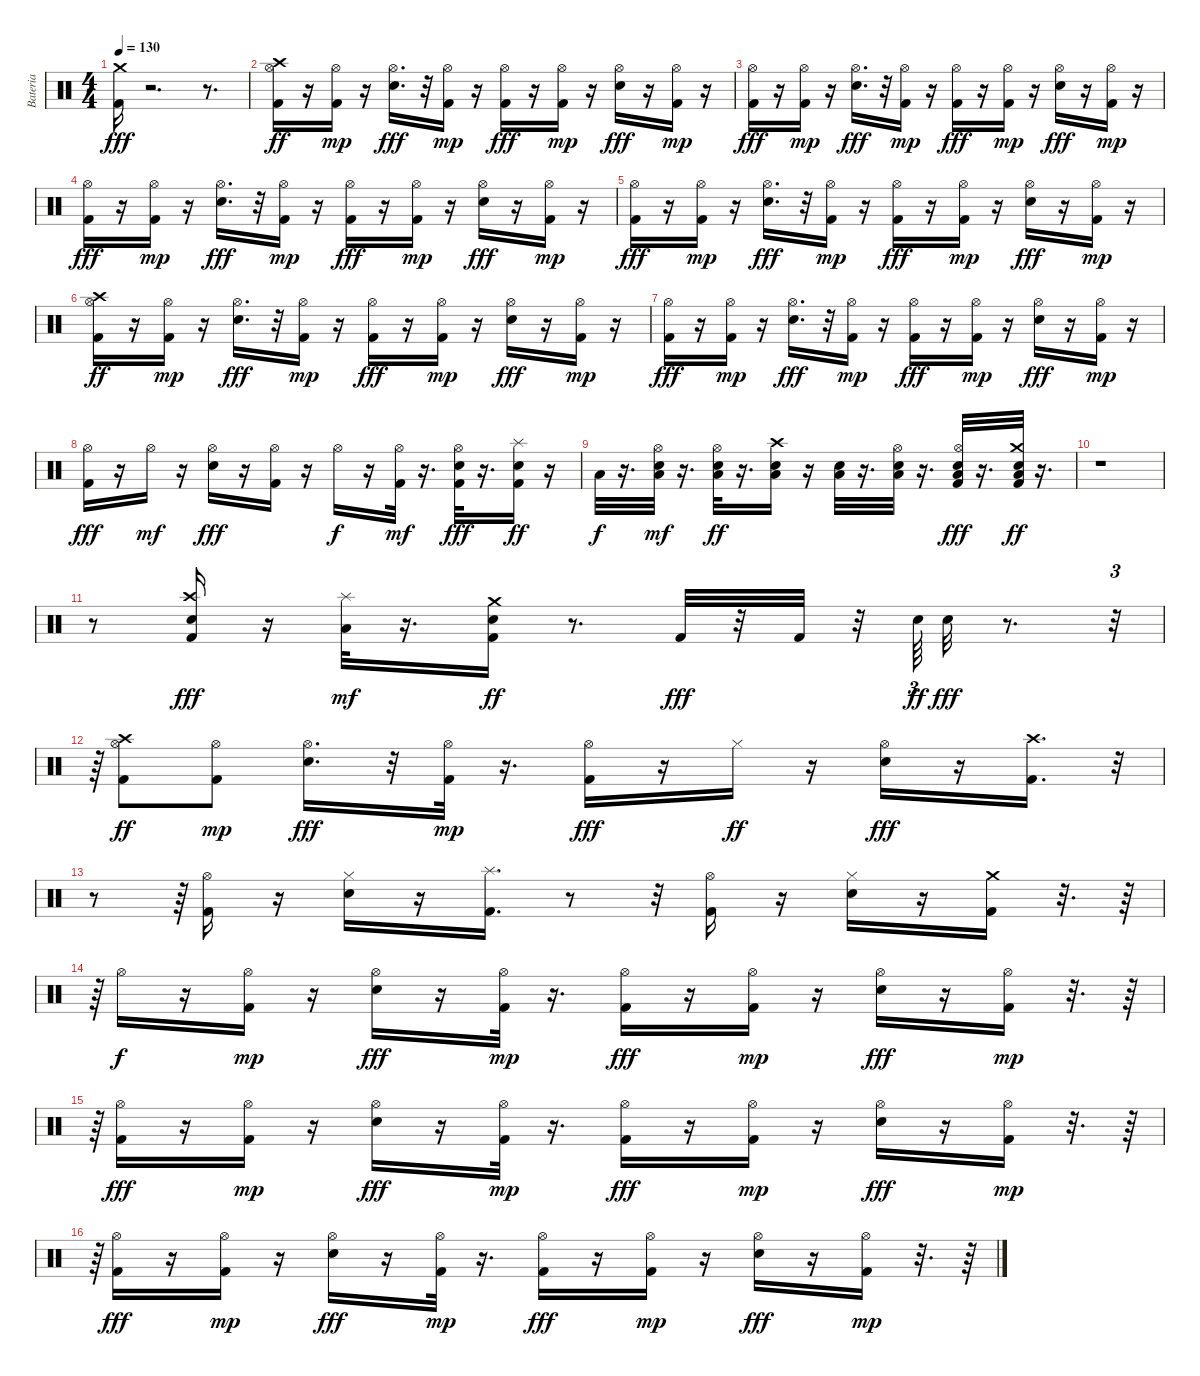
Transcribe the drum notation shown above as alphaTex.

\track ("Bateria" "Bateria") {instrument percussion}
\staff {score}
\articulation defaults
\ts (4 4)
\tempo 130
\clef neutral
\ks c
("Kick (hit) 2" "Crash medium (hit)").16{dy fff} r.2{d} r.8{d} |
("Kick (hit) 2" "Hi-Hat (open)" "Crash high (hit)").16{dy ff} r.16 ("Kick (hit) 2" "Hi-Hat (open)").16{dy mp} r.16 ("Electric Snare (hit)" "Hi-Hat (open)").16{d dy fff} r.32 ("Kick (hit) 2" "Hi-Hat (open)").16{dy mp} r.16 ("Kick (hit) 2" "Hi-Hat (open)").16{dy fff} r.16 ("Kick (hit) 2" "Hi-Hat (open)").16{dy mp} r.16 ("Electric Snare (hit)" "Hi-Hat (open)").16{dy fff} r.16 ("Kick (hit) 2" "Hi-Hat (open)").16{dy mp} r.16 |
("Kick (hit) 2" "Hi-Hat (open)").16{dy fff} r.16 ("Kick (hit) 2" "Hi-Hat (open)").16{dy mp} r.16 ("Electric Snare (hit)" "Hi-Hat (open)").16{d dy fff} r.32 ("Kick (hit) 2" "Hi-Hat (open)").16{dy mp} r.16 ("Kick (hit) 2" "Hi-Hat (open)").16{dy fff} r.16 ("Kick (hit) 2" "Hi-Hat (open)").16{dy mp} r.16 ("Electric Snare (hit)" "Hi-Hat (open)").16{dy fff} r.16 ("Kick (hit) 2" "Hi-Hat (open)").16{dy mp} r.16 |
("Kick (hit) 2" "Hi-Hat (open)").16{dy fff} r.16 ("Kick (hit) 2" "Hi-Hat (open)").16{dy mp} r.16 ("Electric Snare (hit)" "Hi-Hat (open)").16{d dy fff} r.32 ("Kick (hit) 2" "Hi-Hat (open)").16{dy mp} r.16 ("Kick (hit) 2" "Hi-Hat (open)").16{dy fff} r.16 ("Kick (hit) 2" "Hi-Hat (open)").16{dy mp} r.16 ("Electric Snare (hit)" "Hi-Hat (open)").16{dy fff} r.16 ("Kick (hit) 2" "Hi-Hat (open)").16{dy mp} r.16 |
("Kick (hit) 2" "Hi-Hat (open)").16{dy fff} r.16 ("Kick (hit) 2" "Hi-Hat (open)").16{dy mp} r.16 ("Electric Snare (hit)" "Hi-Hat (open)").16{d dy fff} r.32 ("Kick (hit) 2" "Hi-Hat (open)").16{dy mp} r.16 ("Kick (hit) 2" "Hi-Hat (open)").16{dy fff} r.16 ("Kick (hit) 2" "Hi-Hat (open)").16{dy mp} r.16 ("Electric Snare (hit)" "Hi-Hat (open)").16{dy fff} r.16 ("Kick (hit) 2" "Hi-Hat (open)").16{dy mp} r.16 |
("Kick (hit) 2" "Hi-Hat (open)" "Crash high (hit)").16{dy ff} r.16 ("Kick (hit) 2" "Hi-Hat (open)").16{dy mp} r.16 ("Electric Snare (hit)" "Hi-Hat (open)").16{d dy fff} r.32 ("Kick (hit) 2" "Hi-Hat (open)").16{dy mp} r.16 ("Kick (hit) 2" "Hi-Hat (open)").16{dy fff} r.16 ("Kick (hit) 2" "Hi-Hat (open)").16{dy mp} r.16 ("Electric Snare (hit)" "Hi-Hat (open)").16{dy fff} r.16 ("Kick (hit) 2" "Hi-Hat (open)").16{dy mp} r.16 |
("Kick (hit) 2" "Hi-Hat (open)").16{dy fff} r.16 ("Kick (hit) 2" "Hi-Hat (open)").16{dy mp} r.16 ("Electric Snare (hit)" "Hi-Hat (open)").16{d dy fff} r.32 ("Kick (hit) 2" "Hi-Hat (open)").16{dy mp} r.16 ("Kick (hit) 2" "Hi-Hat (open)").16{dy fff} r.16 ("Kick (hit) 2" "Hi-Hat (open)").16{dy mp} r.16 ("Electric Snare (hit)" "Hi-Hat (open)").16{dy fff} r.16 ("Kick (hit) 2" "Hi-Hat (open)").16{dy mp} r.16 |
("Kick (hit) 2" "Hi-Hat (open)").16{dy fff} r.16 "Hi-Hat (open)".16{dy mf} r.16 ("Electric Snare (hit)" "Hi-Hat (open)").16{dy fff} r.16 ("Kick (hit) 2" "Hi-Hat (open)").16 r.16 "Hi-Hat (open)".16{dy f} r.16 ("Kick (hit) 2" "Hi-Hat (open)").32{dy mf} r.16{d} ("Kick (hit) 2" "Electric Snare (hit)" "Hi-Hat (open)").32{dy fff} r.16{d} ("Kick (hit) 2" "Electric Snare (hit)" "Splash (hit)").16{dy ff} r.16 |
"Low Tom (hit)".32{dy f} r.16{d} ("Electric Snare (hit)" "Low Tom (hit)" "Hi-Hat (open)").32{dy mf} r.16{d} ("Electric Snare (hit)" "Low Tom (hit)" "Hi-Hat (open)").32{dy ff} r.16{d} ("Electric Snare (hit)" "Low Tom (hit)" "Crash high (hit)").16 r.16 ("Electric Snare (hit)" "Low Tom (hit)").32 r.16{d} ("Electric Snare (hit)" "Low Tom (hit)" "Hi-Hat (open)").32 r.16{d} ("Kick (hit) 2" "Electric Snare (hit)" "Low Tom (hit)" "Hi-Hat (open)").32{dy fff} r.16{d} ("Kick (hit) 2" "Electric Snare (hit)" "Low Tom (hit)" "Crash medium (hit)").32{dy ff} r.16{d} |
r.1 |
r.8 ("Kick (hit) 2" "Electric Snare (hit)" "Crash high (hit)").16{dy fff} r.16 ("Low Tom (hit)" "Splash (hit)").32{dy mf} r.16{d} ("Kick (hit) 2" "Electric Snare (hit)" "Crash medium (hit)").16{dy ff} r.8{d} "Kick (hit) 2".32{dy fff} r.32 "Kick (hit) 2".32 r.32 "Electric Snare (hit)".64{tu (3 2) dy ff} "Electric Snare (hit)".32{dy fff} r.8{d} r.32{tu (3 2)} |
r.64{tu (3 2)} ("Kick (hit) 2" "Hi-Hat (open)" "Crash high (hit)").8{dy ff} ("Kick (hit) 2" "Hi-Hat (open)").8{dy mp} ("Electric Snare (hit)" "Hi-Hat (open)").16{d dy fff} r.32 ("Kick (hit) 2" "Hi-Hat (open)").32{dy mp} r.16{d} ("Kick (hit) 2" "Hi-Hat (open)").16{dy fff} r.16 "Hi-Hat (closed)".16{dy ff} r.16 ("Electric Snare (hit)" "Hi-Hat (open)").16{dy fff} r.16 ("Kick (hit) 2" "Crash high (hit)").16{d} r.32{tu (3 2)} |
r.8 r.64{tu (3 2)} ("Kick (hit) 2" "Hi-Hat (open)").16 r.16 ("Electric Snare (hit)" "Hi-Hat (closed)").16 r.16 ("Kick (hit) 2" "Splash (hit)").16{d} r.8 r.32 ("Kick (hit) 2" "Hi-Hat (open)").16 r.16 ("Electric Snare (hit)" "Hi-Hat (closed)").16 r.16 ("Kick (hit) 2" "Crash medium (hit)").16 r.32{d} r.64 |
r.64{tu (3 2)} "Hi-Hat (open)".16{dy f} r.16 ("Kick (hit) 2" "Hi-Hat (open)").16{dy mp} r.16 ("Electric Snare (hit)" "Hi-Hat (open)").16{dy fff} r.16 ("Kick (hit) 2" "Hi-Hat (open)").32{dy mp} r.16{d} ("Kick (hit) 2" "Hi-Hat (open)").16{dy fff} r.16 ("Kick (hit) 2" "Hi-Hat (open)").16{dy mp} r.16 ("Electric Snare (hit)" "Hi-Hat (open)").16{dy fff} r.16 ("Kick (hit) 2" "Hi-Hat (open)").16{dy mp} r.32{d} r.64 |
r.64{tu (3 2)} ("Kick (hit) 2" "Hi-Hat (open)").16{dy fff} r.16 ("Kick (hit) 2" "Hi-Hat (open)").16{dy mp} r.16 ("Electric Snare (hit)" "Hi-Hat (open)").16{dy fff} r.16 ("Kick (hit) 2" "Hi-Hat (open)").32{dy mp} r.16{d} ("Kick (hit) 2" "Hi-Hat (open)").16{dy fff} r.16 ("Kick (hit) 2" "Hi-Hat (open)").16{dy mp} r.16 ("Electric Snare (hit)" "Hi-Hat (open)").16{dy fff} r.16 ("Kick (hit) 2" "Hi-Hat (open)").16{dy mp} r.32{d} r.64 |
r.64{tu (3 2)} ("Kick (hit) 2" "Hi-Hat (open)").16{dy fff} r.16 ("Kick (hit) 2" "Hi-Hat (open)").16{dy mp} r.16 ("Electric Snare (hit)" "Hi-Hat (open)").16{dy fff} r.16 ("Kick (hit) 2" "Hi-Hat (open)").32{dy mp} r.16{d} ("Kick (hit) 2" "Hi-Hat (open)").16{dy fff} r.16 ("Kick (hit) 2" "Hi-Hat (open)").16{dy mp} r.16 ("Electric Snare (hit)" "Hi-Hat (open)").16{dy fff} r.16 ("Kick (hit) 2" "Hi-Hat (open)").16{dy mp} r.32{d} r.64
